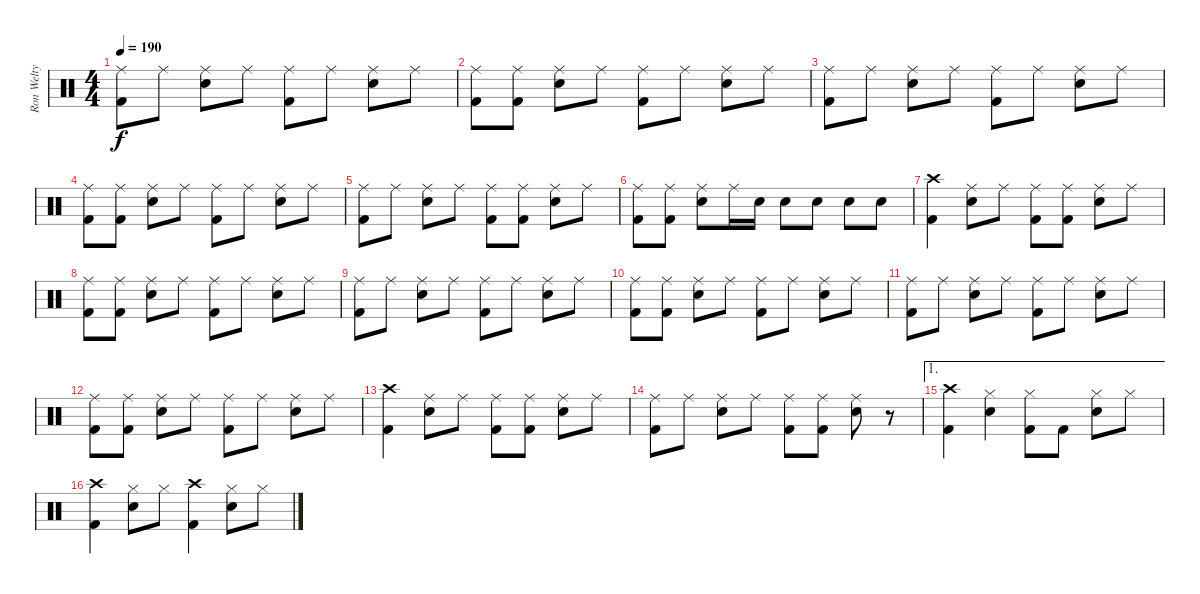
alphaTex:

\track ("Ron Welty" "Ron Welty") {instrument percussion}
\staff {score}
\articulation defaults
\ts (4 4)
\tempo 190
\clef neutral
\ks c
("Ride (middle)" "Kick (hit) 2").8{dy f} "Ride (middle)".8 ("Ride (middle)" "Electric Snare (hit)").8 "Ride (middle)".8 ("Ride (middle)" "Kick (hit) 2").8 "Ride (middle)".8 ("Ride (middle)" "Electric Snare (hit)").8 "Ride (middle)".8 |
("Ride (middle)" "Kick (hit) 2").8 ("Ride (middle)" "Kick (hit) 2").8 ("Ride (middle)" "Electric Snare (hit)").8 "Ride (middle)".8 ("Ride (middle)" "Kick (hit) 2").8 "Ride (middle)".8 ("Ride (middle)" "Electric Snare (hit)").8 "Ride (middle)".8 |
("Ride (middle)" "Kick (hit) 2").8 "Ride (middle)".8 ("Ride (middle)" "Electric Snare (hit)").8 "Ride (middle)".8 ("Ride (middle)" "Kick (hit) 2").8 "Ride (middle)".8 ("Ride (middle)" "Electric Snare (hit)").8 "Ride (middle)".8 |
("Ride (middle)" "Kick (hit) 2").8 ("Ride (middle)" "Kick (hit) 2").8 ("Ride (middle)" "Electric Snare (hit)").8 "Ride (middle)".8 ("Ride (middle)" "Kick (hit) 2").8 "Ride (middle)".8 ("Ride (middle)" "Electric Snare (hit)").8 "Ride (middle)".8 |
("Ride (middle)" "Kick (hit) 2").8 "Ride (middle)".8 ("Ride (middle)" "Electric Snare (hit)").8 "Ride (middle)".8 ("Ride (middle)" "Kick (hit) 2").8 ("Ride (middle)" "Kick (hit) 2").8 ("Ride (middle)" "Electric Snare (hit)").8 "Ride (middle)".8 |
("Ride (middle)" "Kick (hit) 2").8 ("Ride (middle)" "Kick (hit) 2").8 ("Ride (middle)" "Electric Snare (hit)").8 "Ride (middle)".16 "Electric Snare (hit)".16 "Electric Snare (hit)".8 "Electric Snare (hit)".8 "Electric Snare (hit)".8 "Electric Snare (hit)".8 |
("Crash high (hit)" "Kick (hit) 2").4 ("Ride (middle)" "Electric Snare (hit)").8 "Ride (middle)".8 ("Ride (middle)" "Kick (hit) 2").8 ("Ride (middle)" "Kick (hit) 2").8 ("Ride (middle)" "Electric Snare (hit)").8 "Ride (middle)".8 |
("Ride (middle)" "Kick (hit) 2").8 ("Ride (middle)" "Kick (hit) 2").8 ("Ride (middle)" "Electric Snare (hit)").8 "Ride (middle)".8 ("Ride (middle)" "Kick (hit) 2").8 "Ride (middle)".8 ("Ride (middle)" "Electric Snare (hit)").8 "Ride (middle)".8 |
("Ride (middle)" "Kick (hit) 2").8 "Ride (middle)".8 ("Ride (middle)" "Electric Snare (hit)").8 "Ride (middle)".8 ("Ride (middle)" "Kick (hit) 2").8 "Ride (middle)".8 ("Ride (middle)" "Electric Snare (hit)").8 "Ride (middle)".8 |
("Ride (middle)" "Kick (hit) 2").8 ("Ride (middle)" "Kick (hit) 2").8 ("Ride (middle)" "Electric Snare (hit)").8 "Ride (middle)".8 ("Ride (middle)" "Kick (hit) 2").8 "Ride (middle)".8 ("Ride (middle)" "Electric Snare (hit)").8 "Ride (middle)".8 |
("Ride (middle)" "Kick (hit) 2").8 "Ride (middle)".8 ("Ride (middle)" "Electric Snare (hit)").8 "Ride (middle)".8 ("Ride (middle)" "Kick (hit) 2").8 "Ride (middle)".8 ("Ride (middle)" "Electric Snare (hit)").8 "Ride (middle)".8 |
("Ride (middle)" "Kick (hit) 2").8 ("Ride (middle)" "Kick (hit) 2").8 ("Ride (middle)" "Electric Snare (hit)").8 "Ride (middle)".8 ("Ride (middle)" "Kick (hit) 2").8 "Ride (middle)".8 ("Ride (middle)" "Electric Snare (hit)").8 "Ride (middle)".8 |
("Crash high (hit)" "Kick (hit) 2").4 ("Ride (middle)" "Electric Snare (hit)").8 "Ride (middle)".8 ("Ride (middle)" "Kick (hit) 2").8 ("Ride (middle)" "Kick (hit) 2").8 ("Ride (middle)" "Electric Snare (hit)").8 "Ride (middle)".8 |
("Ride (middle)" "Kick (hit) 2").8 "Ride (middle)".8 ("Ride (middle)" "Electric Snare (hit)").8 "Ride (middle)".8 ("Ride (middle)" "Kick (hit) 2").8 ("Ride (middle)" "Kick (hit) 2").8 ("Ride (middle)" "Electric Snare (hit)").8 r.8 |
\ae 1
("Crash high (hit)" "Kick (hit) 2").4 ("Hi-Hat (closed)" "Electric Snare (hit)").4 ("Hi-Hat (closed)" "Kick (hit) 2").8 "Kick (hit) 2".8 ("Hi-Hat (closed)" "Electric Snare (hit)").8 "Hi-Hat (closed)".8 |
("Crash high (hit)" "Kick (hit) 2").4 ("Hi-Hat (closed)" "Electric Snare (hit)").8 "Hi-Hat (closed)".8 ("Crash high (hit)" "Kick (hit) 2").4 ("Hi-Hat (closed)" "Electric Snare (hit)").8 "Hi-Hat (closed)".8
